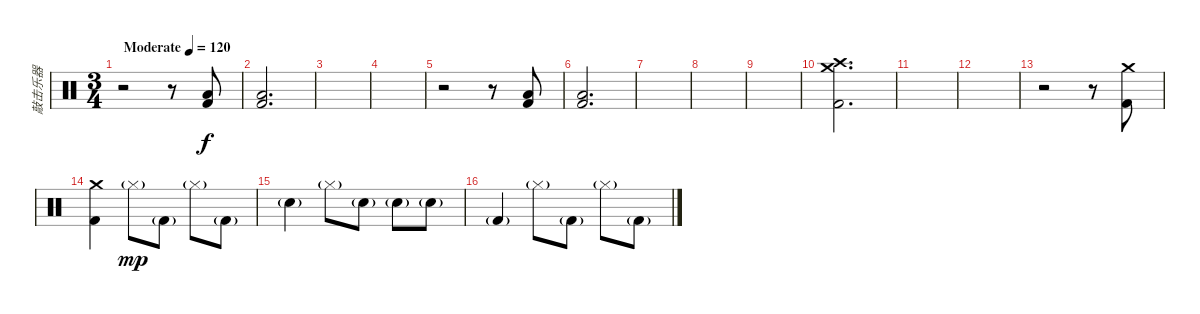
\track ("敲击乐器" "敲击乐器") {instrument percussion}
\staff {score}
\articulation defaults
\ts (3 4)
\tempo (120 "Moderate")
\clef neutral
\ks c
r.2{dy f} r.8 ("Kick (hit) 2" "Low Floor Tom (hit)").8 |
("Kick (hit) 2" "Low Floor Tom (hit)").2{d} |
|
|
r.2 r.8 ("Kick (hit) 2" "Low Floor Tom (hit)").8 |
("Kick (hit) 2" "Low Floor Tom (hit)").2{d} |
|
|
|
("Kick (hit) 2" "Crash high (hit)" "Crash medium (hit)").2{d} |
|
|
r.2 r.8 ("Kick (hit) 2" "Crash medium (hit)").8 |
("Kick (hit) 2" "Crash medium (hit)").4 "Hi-Hat (closed)"{g}.8{dy mp} "Kick (hit) 2"{g}.8 "Hi-Hat (closed)"{g}.8 "Kick (hit) 2"{g}.8 |
"Electric Snare (hit)"{g}.4 "Hi-Hat (closed)"{g}.8 "Electric Snare (hit)"{g}.8 "Electric Snare (hit)"{g}.8 "Electric Snare (hit)"{g}.8 |
"Kick (hit) 2"{g}.4 "Hi-Hat (closed)"{g}.8 "Kick (hit) 2"{g}.8 "Hi-Hat (closed)"{g}.8 "Kick (hit) 2"{g}.8
